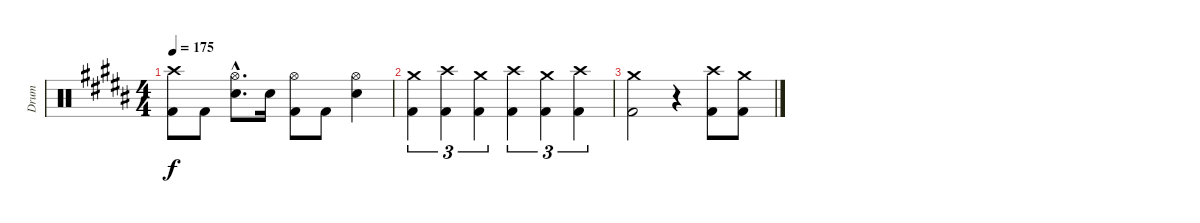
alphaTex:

\track ("Drum" "Drum") {instrument percussion}
\staff {score}
\articulation defaults
\ts (4 4)
\tempo 175
\clef neutral
\ks b
("Crash high (hit)" "Kick (hit) 2").8{dy f} "Kick (hit) 2".8 ("Hi-Hat (open)"{hac} "Snare (hit) 2"{hac}).8{d} "Snare (hit) 2".16 ("Hi-Hat (open)" "Kick (hit) 2").8 "Kick (hit) 2".8 ("Hi-Hat (open)" "Snare (hit) 2").4 |
("Crash medium (hit)" "Kick (hit) 2").4{tu (3 2)} ("Crash high (hit)" "Kick (hit) 2").4{tu (3 2)} ("Crash medium (hit)" "Kick (hit) 2").4{tu (3 2)} ("Crash high (hit)" "Kick (hit) 2").4{tu (3 2)} ("Crash medium (hit)" "Kick (hit) 2").4{tu (3 2)} ("Crash high (hit)" "Kick (hit) 2").4{tu (3 2)} |
("Crash medium (hit)" "Kick (hit) 2").2 r.4 ("Crash high (hit)" "Kick (hit) 2").8 ("Crash medium (hit)" "Kick (hit) 2").8
